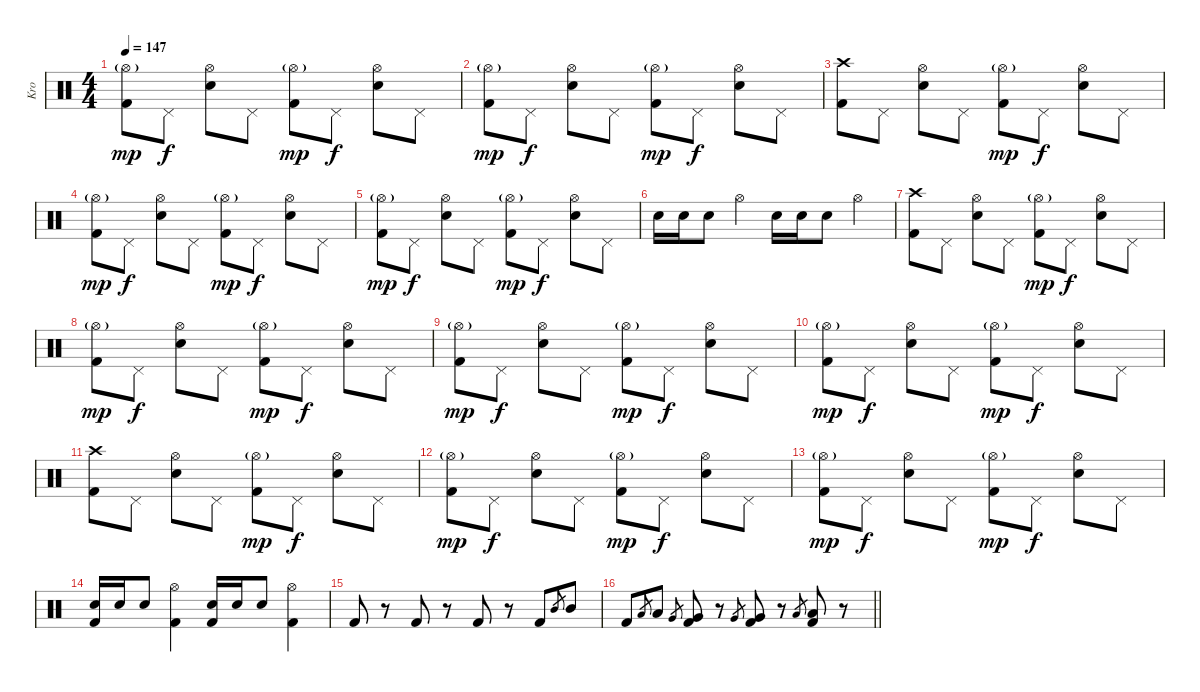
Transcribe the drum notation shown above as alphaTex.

\track ("Kro" "Kro") {instrument percussion}
\staff {score}
\articulation defaults
\ts (4 4)
\tempo 147
\clef neutral
\ks c
("Hi-Hat (open)"{g} "Kick (hit) 2").8{dy mp} "Pedal Hi-Hat (hit)".8{dy f} ("Hi-Hat (open)" "Electric Snare (hit)").8 "Pedal Hi-Hat (hit)".8 ("Hi-Hat (open)"{g} "Kick (hit) 2").8{dy mp} "Pedal Hi-Hat (hit)".8{dy f} ("Hi-Hat (open)" "Electric Snare (hit)").8 "Pedal Hi-Hat (hit)".8 |
("Hi-Hat (open)"{g} "Kick (hit) 2").8{dy mp} "Pedal Hi-Hat (hit)".8{dy f} ("Hi-Hat (open)" "Electric Snare (hit)").8 "Pedal Hi-Hat (hit)".8 ("Hi-Hat (open)"{g} "Kick (hit) 2").8{dy mp} "Pedal Hi-Hat (hit)".8{dy f} ("Hi-Hat (open)" "Electric Snare (hit)").8 "Pedal Hi-Hat (hit)".8 |
("Crash high (hit)" "Kick (hit) 2").8 "Pedal Hi-Hat (hit)".8 ("Hi-Hat (open)" "Electric Snare (hit)").8 "Pedal Hi-Hat (hit)".8 ("Hi-Hat (open)"{g} "Kick (hit) 2").8{dy mp} "Pedal Hi-Hat (hit)".8{dy f} ("Hi-Hat (open)" "Electric Snare (hit)").8 "Pedal Hi-Hat (hit)".8 |
("Hi-Hat (open)"{g} "Kick (hit) 2").8{dy mp} "Pedal Hi-Hat (hit)".8{dy f} ("Hi-Hat (open)" "Electric Snare (hit)").8 "Pedal Hi-Hat (hit)".8 ("Hi-Hat (open)"{g} "Kick (hit) 2").8{dy mp} "Pedal Hi-Hat (hit)".8{dy f} ("Hi-Hat (open)" "Electric Snare (hit)").8 "Pedal Hi-Hat (hit)".8 |
("Hi-Hat (open)"{g} "Kick (hit) 2").8{dy mp} "Pedal Hi-Hat (hit)".8{dy f} ("Hi-Hat (open)" "Electric Snare (hit)").8 "Pedal Hi-Hat (hit)".8 ("Hi-Hat (open)"{g} "Kick (hit) 2").8{dy mp} "Pedal Hi-Hat (hit)".8{dy f} ("Hi-Hat (open)" "Electric Snare (hit)").8 "Pedal Hi-Hat (hit)".8 |
"Electric Snare (hit)".16 "Electric Snare (hit)".16 "Electric Snare (hit)".8 "Hi-Hat (open)".4 "Electric Snare (hit)".16 "Electric Snare (hit)".16 "Electric Snare (hit)".8 "Hi-Hat (open)".4 |
("Crash high (hit)" "Kick (hit) 2").8 "Pedal Hi-Hat (hit)".8 ("Hi-Hat (open)" "Electric Snare (hit)").8 "Pedal Hi-Hat (hit)".8 ("Hi-Hat (open)"{g} "Kick (hit) 2").8{dy mp} "Pedal Hi-Hat (hit)".8{dy f} ("Hi-Hat (open)" "Electric Snare (hit)").8 "Pedal Hi-Hat (hit)".8 |
("Hi-Hat (open)"{g} "Kick (hit) 2").8{dy mp} "Pedal Hi-Hat (hit)".8{dy f} ("Hi-Hat (open)" "Electric Snare (hit)").8 "Pedal Hi-Hat (hit)".8 ("Hi-Hat (open)"{g} "Kick (hit) 2").8{dy mp} "Pedal Hi-Hat (hit)".8{dy f} ("Hi-Hat (open)" "Electric Snare (hit)").8 "Pedal Hi-Hat (hit)".8 |
("Hi-Hat (open)"{g} "Kick (hit) 2").8{dy mp} "Pedal Hi-Hat (hit)".8{dy f} ("Hi-Hat (open)" "Electric Snare (hit)").8 "Pedal Hi-Hat (hit)".8 ("Hi-Hat (open)"{g} "Kick (hit) 2").8{dy mp} "Pedal Hi-Hat (hit)".8{dy f} ("Hi-Hat (open)" "Electric Snare (hit)").8 "Pedal Hi-Hat (hit)".8 |
("Hi-Hat (open)"{g} "Kick (hit) 2").8{dy mp} "Pedal Hi-Hat (hit)".8{dy f} ("Hi-Hat (open)" "Electric Snare (hit)").8 "Pedal Hi-Hat (hit)".8 ("Hi-Hat (open)"{g} "Kick (hit) 2").8{dy mp} "Pedal Hi-Hat (hit)".8{dy f} ("Hi-Hat (open)" "Electric Snare (hit)").8 "Pedal Hi-Hat (hit)".8 |
("Crash high (hit)" "Kick (hit) 2").8 "Pedal Hi-Hat (hit)".8 ("Hi-Hat (open)" "Electric Snare (hit)").8 "Pedal Hi-Hat (hit)".8 ("Hi-Hat (open)"{g} "Kick (hit) 2").8{dy mp} "Pedal Hi-Hat (hit)".8{dy f} ("Hi-Hat (open)" "Electric Snare (hit)").8 "Pedal Hi-Hat (hit)".8 |
("Hi-Hat (open)"{g} "Kick (hit) 2").8{dy mp} "Pedal Hi-Hat (hit)".8{dy f} ("Hi-Hat (open)" "Electric Snare (hit)").8 "Pedal Hi-Hat (hit)".8 ("Hi-Hat (open)"{g} "Kick (hit) 2").8{dy mp} "Pedal Hi-Hat (hit)".8{dy f} ("Hi-Hat (open)" "Electric Snare (hit)").8 "Pedal Hi-Hat (hit)".8 |
("Hi-Hat (open)"{g} "Kick (hit) 2").8{dy mp} "Pedal Hi-Hat (hit)".8{dy f} ("Hi-Hat (open)" "Electric Snare (hit)").8 "Pedal Hi-Hat (hit)".8 ("Hi-Hat (open)"{g} "Kick (hit) 2").8{dy mp} "Pedal Hi-Hat (hit)".8{dy f} ("Hi-Hat (open)" "Electric Snare (hit)").8 "Pedal Hi-Hat (hit)".8 |
("Electric Snare (hit)" "Kick (hit) 2").16 "Electric Snare (hit)".16 "Electric Snare (hit)".8 ("Hi-Hat (open)" "Kick (hit) 2").4 ("Electric Snare (hit)" "Kick (hit) 2").16 "Electric Snare (hit)".16 "Electric Snare (hit)".8 ("Hi-Hat (open)" "Kick (hit) 2").4 |
"Kick (hit) 2".8 r.8 "Kick (hit) 2".8 r.8 "Kick (hit) 2".8 r.8 "Kick (hit) 2".8 "Mid Tom (hit)".8{gr} "Mid Tom (hit)".8 |
\barLineRight lightlight "Kick (hit) 2".8 "Low Tom (hit)".8{gr} "Low Tom (hit)".8 "Very Low Tom (hit)".8{gr}
("Very Low Tom (hit)" "Kick (hit) 2").8 r.8 "Very Low Tom (hit)".8{gr} ("Very Low Tom (hit)" "Kick (hit) 2").8 r.8 "Low Floor Tom (hit)".8{gr} ("Low Floor Tom (hit)" "Kick (hit) 2").8 r.8
